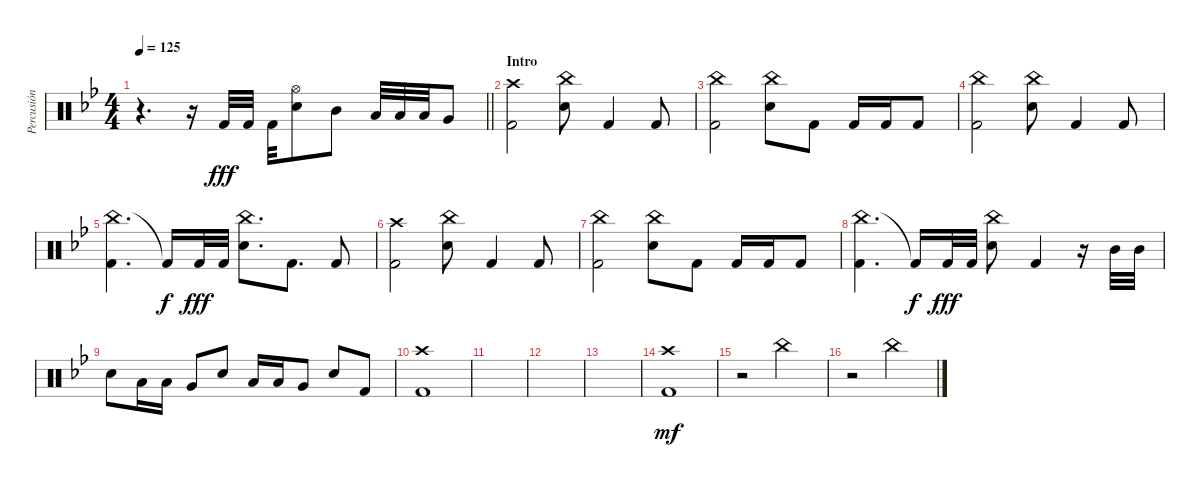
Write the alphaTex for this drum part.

\track ("Percusión" "Percusión") {instrument percussion}
\staff {score}
\articulation defaults
\ts (4 4)
\tempo 125
\clef neutral
\barLineRight lightlight
\ks gminor
r.4{d dy fff} r.16 "Kick (hit) 2".32 "Kick (hit) 2".32 "Kick (hit) 2".32 ("Hi-Hat (open)" "Snare (hit) 2").8 "Mid Tom (hit)".8 "Low Tom (hit)".32 "Low Tom (hit)".32 "Low Tom (hit)".32 "Very Low Tom (hit)".8 |
\section ("" "Intro")
("Crash high (hit)" "Kick (hit) 2").2 ("China (hit)" "Snare (hit) 2").8 "Kick (hit) 2".4 "Kick (hit) 2".8 |
("China (hit)" "Kick (hit) 2").2 ("China (hit)" "Snare (hit) 2").8 "Kick (hit) 2".8 "Kick (hit) 2".16 "Kick (hit) 2".16 "Kick (hit) 2".8 |
("China (hit)" "Kick (hit) 2").2 ("China (hit)" "Snare (hit) 2").8 "Kick (hit) 2".4 "Kick (hit) 2".8 |
("China (hit)" "Kick (hit) 2").4{d} "Kick (hit) 2"{t}.16{dy f} "Kick (hit) 2".32{dy fff} "Kick (hit) 2".32 ("China (hit)" "Snare (hit) 2").8{d} "Kick (hit) 2".8{d} "Kick (hit) 2".8 |
("Crash high (hit)" "Kick (hit) 2").2 ("China (hit)" "Snare (hit) 2").8 "Kick (hit) 2".4 "Kick (hit) 2".8 |
("China (hit)" "Kick (hit) 2").2 ("China (hit)" "Snare (hit) 2").8 "Kick (hit) 2".8 "Kick (hit) 2".16 "Kick (hit) 2".16 "Kick (hit) 2".8 |
("China (hit)" "Kick (hit) 2").4{d} "Kick (hit) 2"{t}.16{dy f} "Kick (hit) 2".32{dy fff} "Kick (hit) 2".32 ("China (hit)" "Snare (hit) 2").8 "Kick (hit) 2".4 r.16 "Mid Tom (hit)".32 "Mid Tom (hit)".32 |
"Snare (hit) 2".8 "Low Tom (hit)".16 "Low Tom (hit)".16 "Very Low Tom (hit)".8 "Snare (hit) 2".8 "Low Tom (hit)".16 "Low Tom (hit)".16 "Very Low Tom (hit)".8 "Snare (hit) 2".8 "Kick (hit) 2".8 |
("Crash high (hit)" "Kick (hit) 2").1 |
|
|
|
("Crash high (hit)" "Kick (hit) 2").1{dy mf} |
r.2 "China (hit)".2 |
r.2 "China (hit)".2
